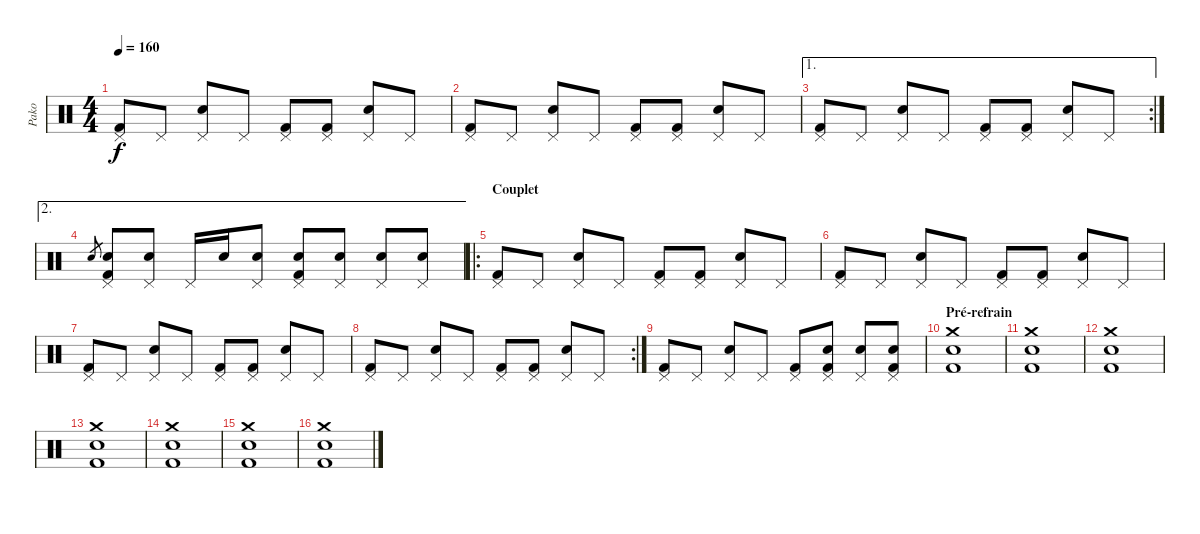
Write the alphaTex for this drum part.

\track ("Pako" "Pako") {instrument percussion}
\staff {score}
\articulation defaults
\ts (4 4)
\tempo 160
\clef neutral
\ks c
("Pedal Hi-Hat (hit)" "Kick (hit) 2").8{dy f} "Pedal Hi-Hat (hit)".8 ("Pedal Hi-Hat (hit)" "Snare (hit) 2").8 "Pedal Hi-Hat (hit)".8 ("Pedal Hi-Hat (hit)" "Kick (hit) 2").8 ("Pedal Hi-Hat (hit)" "Kick (hit) 2").8 ("Pedal Hi-Hat (hit)" "Snare (hit) 2").8 "Pedal Hi-Hat (hit)".8 |
("Pedal Hi-Hat (hit)" "Kick (hit) 2").8 "Pedal Hi-Hat (hit)".8 ("Pedal Hi-Hat (hit)" "Snare (hit) 2").8 "Pedal Hi-Hat (hit)".8 ("Pedal Hi-Hat (hit)" "Kick (hit) 2").8 ("Pedal Hi-Hat (hit)" "Kick (hit) 2").8 ("Pedal Hi-Hat (hit)" "Snare (hit) 2").8 "Pedal Hi-Hat (hit)".8 |
\ae 1
\rc 2
("Pedal Hi-Hat (hit)" "Kick (hit) 2").8 "Pedal Hi-Hat (hit)".8 ("Pedal Hi-Hat (hit)" "Snare (hit) 2").8 "Pedal Hi-Hat (hit)".8 ("Pedal Hi-Hat (hit)" "Kick (hit) 2").8 ("Pedal Hi-Hat (hit)" "Kick (hit) 2").8 ("Pedal Hi-Hat (hit)" "Snare (hit) 2").8 "Pedal Hi-Hat (hit)".8 |
\ae 2 "Snare (hit) 2".8{gr}
("Pedal Hi-Hat (hit)" "Snare (hit) 2" "Kick (hit) 2").8 ("Pedal Hi-Hat (hit)" "Snare (hit) 2").8 "Pedal Hi-Hat (hit)".16 "Snare (hit) 2".16 ("Pedal Hi-Hat (hit)" "Snare (hit) 2").8 ("Pedal Hi-Hat (hit)" "Snare (hit) 2" "Kick (hit) 2").8 ("Pedal Hi-Hat (hit)" "Snare (hit) 2").8 ("Pedal Hi-Hat (hit)" "Snare (hit) 2").8 ("Pedal Hi-Hat (hit)" "Snare (hit) 2").8 |
\ro
\section ("" "Couplet")
("Pedal Hi-Hat (hit)" "Kick (hit) 2").8 "Pedal Hi-Hat (hit)".8 ("Pedal Hi-Hat (hit)" "Snare (hit) 2").8 "Pedal Hi-Hat (hit)".8 ("Pedal Hi-Hat (hit)" "Kick (hit) 2").8 ("Pedal Hi-Hat (hit)" "Kick (hit) 2").8 ("Pedal Hi-Hat (hit)" "Snare (hit) 2").8 "Pedal Hi-Hat (hit)".8 |
("Pedal Hi-Hat (hit)" "Kick (hit) 2").8 "Pedal Hi-Hat (hit)".8 ("Pedal Hi-Hat (hit)" "Snare (hit) 2").8 "Pedal Hi-Hat (hit)".8 ("Pedal Hi-Hat (hit)" "Kick (hit) 2").8 ("Pedal Hi-Hat (hit)" "Kick (hit) 2").8 ("Pedal Hi-Hat (hit)" "Snare (hit) 2").8 "Pedal Hi-Hat (hit)".8 |
("Pedal Hi-Hat (hit)" "Kick (hit) 2").8 "Pedal Hi-Hat (hit)".8 ("Pedal Hi-Hat (hit)" "Snare (hit) 2").8 "Pedal Hi-Hat (hit)".8 ("Pedal Hi-Hat (hit)" "Kick (hit) 2").8 ("Pedal Hi-Hat (hit)" "Kick (hit) 2").8 ("Pedal Hi-Hat (hit)" "Snare (hit) 2").8 "Pedal Hi-Hat (hit)".8 |
\rc 2
("Pedal Hi-Hat (hit)" "Kick (hit) 2").8 "Pedal Hi-Hat (hit)".8 ("Pedal Hi-Hat (hit)" "Snare (hit) 2").8 "Pedal Hi-Hat (hit)".8 ("Pedal Hi-Hat (hit)" "Kick (hit) 2").8 ("Pedal Hi-Hat (hit)" "Kick (hit) 2").8 ("Pedal Hi-Hat (hit)" "Snare (hit) 2").8 "Pedal Hi-Hat (hit)".8 |
("Pedal Hi-Hat (hit)" "Kick (hit) 2").8 "Pedal Hi-Hat (hit)".8 ("Pedal Hi-Hat (hit)" "Snare (hit) 2").8 "Pedal Hi-Hat (hit)".8 ("Pedal Hi-Hat (hit)" "Kick (hit) 2").8 ("Pedal Hi-Hat (hit)" "Snare (hit) 2" "Kick (hit) 2").8 ("Pedal Hi-Hat (hit)" "Snare (hit) 2").8 ("Pedal Hi-Hat (hit)" "Snare (hit) 2" "Kick (hit) 2").8 |
\section ("" "Pré-refrain")
("Crash medium (hit)" "Snare (hit) 2" "Kick (hit) 2").1 |
("Crash medium (hit)" "Snare (hit) 2" "Kick (hit) 2").1 |
("Crash medium (hit)" "Snare (hit) 2" "Kick (hit) 2").1 |
("Crash medium (hit)" "Snare (hit) 2" "Kick (hit) 2").1 |
("Crash medium (hit)" "Snare (hit) 2" "Kick (hit) 2").1 |
("Crash medium (hit)" "Snare (hit) 2" "Kick (hit) 2").1 |
("Crash medium (hit)" "Snare (hit) 2" "Kick (hit) 2").1
